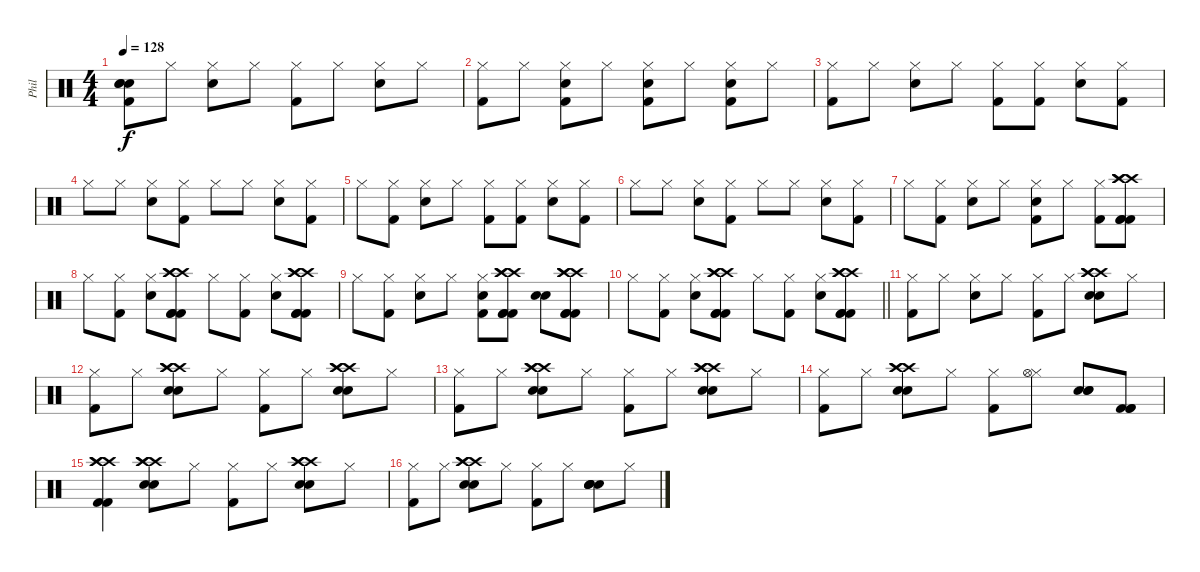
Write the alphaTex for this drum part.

\track ("Phil" "Phil") {instrument percussion}
\staff {score}
\articulation defaults
\ts (4 4)
\tempo 128
\clef neutral
\ks c
("Snare (hit)"{t} "Snare (hit)"{t} "Kick (hit) 2"{t} "Snare (hit)"{t}).8{dy f} "Hi-Hat (closed)".8 ("Hi-Hat (closed)" "Electric Snare (hit)").8 "Hi-Hat (closed)".8 ("Hi-Hat (closed)" "Kick (hit) 2").8 "Hi-Hat (closed)".8 ("Hi-Hat (closed)" "Electric Snare (hit)").8 "Hi-Hat (closed)".8 |
("Hi-Hat (closed)" "Kick (hit) 2").8 "Hi-Hat (closed)".8 ("Hi-Hat (closed)" "Electric Snare (hit)" "Kick (hit) 2").8 "Hi-Hat (closed)".8 ("Hi-Hat (closed)" "Electric Snare (hit)" "Kick (hit) 2").8 "Hi-Hat (closed)".8 ("Hi-Hat (closed)" "Electric Snare (hit)" "Kick (hit) 2").8 "Hi-Hat (closed)".8 |
("Hi-Hat (closed)" "Kick (hit) 2").8 "Hi-Hat (closed)".8 ("Hi-Hat (closed)" "Electric Snare (hit)").8 "Hi-Hat (closed)".8 ("Hi-Hat (closed)" "Kick (hit) 2").8 ("Hi-Hat (closed)" "Kick (hit) 2").8 ("Hi-Hat (closed)" "Electric Snare (hit)").8 ("Hi-Hat (closed)" "Kick (hit) 2").8 |
"Hi-Hat (closed)".8 "Hi-Hat (closed)".8 ("Hi-Hat (closed)" "Electric Snare (hit)").8 ("Hi-Hat (closed)" "Kick (hit) 2").8 "Hi-Hat (closed)".8 "Hi-Hat (closed)".8 ("Hi-Hat (closed)" "Electric Snare (hit)").8 ("Hi-Hat (closed)" "Kick (hit) 2").8 |
"Hi-Hat (closed)".8 ("Hi-Hat (closed)" "Kick (hit) 2").8 ("Hi-Hat (closed)" "Electric Snare (hit)").8 "Hi-Hat (closed)".8 ("Hi-Hat (closed)" "Kick (hit) 2").8 ("Hi-Hat (closed)" "Kick (hit) 2").8 ("Hi-Hat (closed)" "Electric Snare (hit)").8 ("Hi-Hat (closed)" "Kick (hit) 2").8 |
"Hi-Hat (closed)".8 "Hi-Hat (closed)".8 ("Hi-Hat (closed)" "Electric Snare (hit)").8 ("Hi-Hat (closed)" "Kick (hit) 2").8 "Hi-Hat (closed)".8 "Hi-Hat (closed)".8 ("Hi-Hat (closed)" "Electric Snare (hit)").8 ("Hi-Hat (closed)" "Kick (hit) 2").8 |
"Hi-Hat (closed)".8 ("Hi-Hat (closed)" "Kick (hit) 2").8 ("Hi-Hat (closed)" "Electric Snare (hit)").8 "Hi-Hat (closed)".8 ("Hi-Hat (closed)" "Electric Snare (hit)" "Kick (hit) 2").8 "Hi-Hat (closed)".8 ("Hi-Hat (closed)" "Kick (hit) 2").8 ("Crash high (hit)" "Crash high (hit)" "Crash high (hit)" "Kick (hit) 2" "Kick (hit) 2" "Kick (hit) 2").8 |
"Hi-Hat (closed)".8 ("Hi-Hat (closed)" "Kick (hit) 2").8 ("Hi-Hat (closed)" "Electric Snare (hit)").8 ("Crash high (hit)" "Crash high (hit)" "Crash high (hit)" "Kick (hit) 2" "Kick (hit) 2" "Kick (hit) 2").8 "Hi-Hat (closed)".8 ("Hi-Hat (closed)" "Kick (hit) 2").8 ("Hi-Hat (closed)" "Electric Snare (hit)").8 ("Crash high (hit)" "Crash high (hit)" "Crash high (hit)" "Kick (hit) 2" "Kick (hit) 2" "Kick (hit) 2").8 |
"Hi-Hat (closed)".8 ("Hi-Hat (closed)" "Kick (hit) 2").8 ("Hi-Hat (closed)" "Electric Snare (hit)").8 "Hi-Hat (closed)".8 ("Hi-Hat (closed)" "Electric Snare (hit)" "Kick (hit) 2").8 ("Crash high (hit)" "Crash high (hit)" "Crash high (hit)" "Kick (hit) 2" "Kick (hit) 2" "Kick (hit) 2").8 ("Electric Snare (hit)" "Electric Snare (hit)").8 ("Crash high (hit)" "Crash high (hit)" "Crash high (hit)" "Kick (hit) 2" "Kick (hit) 2" "Kick (hit) 2").8 |
\barLineRight lightlight "Hi-Hat (closed)".8
("Hi-Hat (closed)" "Kick (hit) 2").8 ("Hi-Hat (closed)" "Electric Snare (hit)").8 ("Crash high (hit)" "Crash high (hit)" "Crash high (hit)" "Kick (hit) 2" "Kick (hit) 2" "Kick (hit) 2").8 "Hi-Hat (closed)".8 ("Hi-Hat (closed)" "Kick (hit) 2").8 ("Hi-Hat (closed)" "Electric Snare (hit)").8 ("Crash high (hit)" "Crash high (hit)" "Crash high (hit)" "Kick (hit) 2" "Kick (hit) 2" "Kick (hit) 2").8 |
("Hi-Hat (closed)" "Kick (hit) 2").8 "Hi-Hat (closed)".8 ("Hi-Hat (closed)" "Electric Snare (hit)").8 "Hi-Hat (closed)".8 ("Hi-Hat (closed)" "Kick (hit) 2").8 "Hi-Hat (closed)".8 ("Crash high (hit)" "Crash high (hit)" "Crash high (hit)" "Electric Snare (hit)" "Electric Snare (hit)").8 "Hi-Hat (closed)".8 |
("Hi-Hat (closed)" "Kick (hit) 2").8 "Hi-Hat (closed)".8 ("Crash high (hit)" "Crash high (hit)" "Crash high (hit)" "Electric Snare (hit)" "Electric Snare (hit)").8 "Hi-Hat (closed)".8 ("Hi-Hat (closed)" "Kick (hit) 2").8 "Hi-Hat (closed)".8 ("Crash high (hit)" "Crash high (hit)" "Crash high (hit)" "Electric Snare (hit)" "Electric Snare (hit)").8 "Hi-Hat (closed)".8 |
("Hi-Hat (closed)" "Kick (hit) 2").8 "Hi-Hat (closed)".8 ("Crash high (hit)" "Crash high (hit)" "Crash high (hit)" "Electric Snare (hit)" "Electric Snare (hit)").8 "Hi-Hat (closed)".8 ("Hi-Hat (closed)" "Kick (hit) 2").8 "Hi-Hat (closed)".8 ("Crash high (hit)" "Crash high (hit)" "Crash high (hit)" "Electric Snare (hit)" "Electric Snare (hit)").8 "Hi-Hat (closed)".8 |
("Hi-Hat (closed)" "Kick (hit) 2").8 "Hi-Hat (closed)".8 ("Crash high (hit)" "Crash high (hit)" "Crash high (hit)" "Electric Snare (hit)" "Electric Snare (hit)").8 "Hi-Hat (closed)".8 ("Hi-Hat (closed)" "Kick (hit) 2").8 ("Hi-Hat (closed)" "Hi-Hat (open)").8 ("Electric Snare (hit)" "Electric Snare (hit)" "Electric Snare (hit)").8 ("Kick (hit) 2" "Kick (hit) 2" "Kick (hit) 2").8 |
("Crash high (hit)" "Crash high (hit)" "Crash high (hit)" "Kick (hit) 2" "Kick (hit) 2").4 ("Crash high (hit)" "Crash high (hit)" "Crash high (hit)" "Electric Snare (hit)" "Electric Snare (hit)").8 "Hi-Hat (closed)".8 ("Hi-Hat (closed)" "Kick (hit) 2").8 "Hi-Hat (closed)".8 ("Crash high (hit)" "Crash high (hit)" "Crash high (hit)" "Electric Snare (hit)" "Electric Snare (hit)").8 "Hi-Hat (closed)".8 |
("Hi-Hat (closed)" "Kick (hit) 2").8 "Hi-Hat (closed)".8 ("Crash high (hit)" "Crash high (hit)" "Crash high (hit)" "Electric Snare (hit)" "Electric Snare (hit)").8 "Hi-Hat (closed)".8 ("Hi-Hat (closed)" "Kick (hit) 2").8 "Hi-Hat (closed)".8 ("Electric Snare (hit)" "Electric Snare (hit)" "Electric Snare (hit)" "Electric Snare (hit)").8 "Hi-Hat (closed)".8
